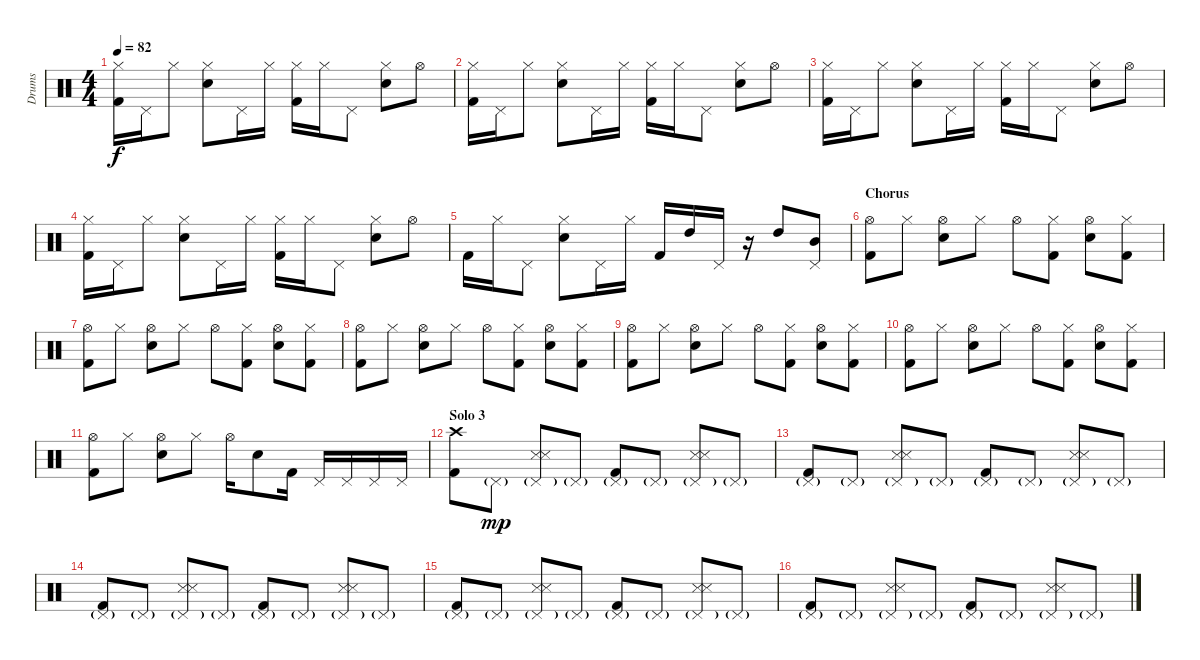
\track ("Drums" "Drums") {instrument percussion}
\staff {score}
\articulation defaults
\ts (4 4)
\tempo 82
\clef neutral
\ks c
("Hi-Hat (closed)" "Kick (hit) 2").16{dy f} "Pedal Hi-Hat (hit)".16 "Hi-Hat (closed)".8 ("Hi-Hat (closed)" "Snare (hit) 2").8 "Pedal Hi-Hat (hit)".16 "Hi-Hat (closed)".16 ("Hi-Hat (closed)" "Kick (hit) 2").16 "Hi-Hat (closed)".16 "Pedal Hi-Hat (hit)".8 ("Hi-Hat (closed)" "Snare (hit) 2").8 "Hi-Hat (open)".8 |
("Hi-Hat (closed)" "Kick (hit) 2").16 "Pedal Hi-Hat (hit)".16 "Hi-Hat (closed)".8 ("Hi-Hat (closed)" "Snare (hit) 2").8 "Pedal Hi-Hat (hit)".16 "Hi-Hat (closed)".16 ("Hi-Hat (closed)" "Kick (hit) 2").16 "Hi-Hat (closed)".16 "Pedal Hi-Hat (hit)".8 ("Hi-Hat (closed)" "Snare (hit) 2").8 "Hi-Hat (open)".8 |
("Hi-Hat (closed)" "Kick (hit) 2").16 "Pedal Hi-Hat (hit)".16 "Hi-Hat (closed)".8 ("Hi-Hat (closed)" "Snare (hit) 2").8 "Pedal Hi-Hat (hit)".16 "Hi-Hat (closed)".16 ("Hi-Hat (closed)" "Kick (hit) 2").16 "Hi-Hat (closed)".16 "Pedal Hi-Hat (hit)".8 ("Hi-Hat (closed)" "Snare (hit) 2").8 "Hi-Hat (open)".8 |
("Hi-Hat (closed)" "Kick (hit) 2").16 "Pedal Hi-Hat (hit)".16 "Hi-Hat (closed)".8 ("Hi-Hat (closed)" "Snare (hit) 2").8 "Pedal Hi-Hat (hit)".16 "Hi-Hat (closed)".16 ("Hi-Hat (closed)" "Kick (hit) 2").16 "Hi-Hat (closed)".16 "Pedal Hi-Hat (hit)".8 ("Hi-Hat (closed)" "Snare (hit) 2").8 "Hi-Hat (open)".8 |
"Kick (hit) 2".16 "Hi-Hat (closed)".16 "Pedal Hi-Hat (hit)".8 ("Snare (hit) 2" "Hi-Hat (closed)").8 "Pedal Hi-Hat (hit)".16 "Hi-Hat (closed)".16 "Kick (hit) 2".16 "High Tom (hit)".16 "Pedal Hi-Hat (hit)".16 r.16 "High Tom (hit)".8 ("Pedal Hi-Hat (hit)" "Mid Tom (hit)").8 |
\section ("" "Chorus")
("Hi-Hat (open)" "Kick (hit) 2").8 "Hi-Hat (closed)".8 ("Hi-Hat (open)" "Snare (hit) 2").8 "Hi-Hat (closed)".8 "Hi-Hat (open)".8 ("Hi-Hat (closed)" "Kick (hit) 2").8 ("Hi-Hat (open)" "Snare (hit) 2").8 ("Hi-Hat (closed)" "Kick (hit) 2").8 |
("Hi-Hat (open)" "Kick (hit) 2").8 "Hi-Hat (closed)".8 ("Hi-Hat (open)" "Snare (hit) 2").8 "Hi-Hat (closed)".8 "Hi-Hat (open)".8 ("Hi-Hat (closed)" "Kick (hit) 2").8 ("Hi-Hat (open)" "Snare (hit) 2").8 ("Hi-Hat (closed)" "Kick (hit) 2").8 |
("Hi-Hat (open)" "Kick (hit) 2").8 "Hi-Hat (closed)".8 ("Hi-Hat (open)" "Snare (hit) 2").8 "Hi-Hat (closed)".8 "Hi-Hat (open)".8 ("Hi-Hat (closed)" "Kick (hit) 2").8 ("Hi-Hat (open)" "Snare (hit) 2").8 ("Hi-Hat (closed)" "Kick (hit) 2").8 |
("Hi-Hat (open)" "Kick (hit) 2").8 "Hi-Hat (closed)".8 ("Hi-Hat (open)" "Snare (hit) 2").8 "Hi-Hat (closed)".8 "Hi-Hat (open)".8 ("Hi-Hat (closed)" "Kick (hit) 2").8 ("Hi-Hat (open)" "Snare (hit) 2").8 ("Hi-Hat (closed)" "Kick (hit) 2").8 |
("Hi-Hat (open)" "Kick (hit) 2").8 "Hi-Hat (closed)".8 ("Hi-Hat (open)" "Snare (hit) 2").8 "Hi-Hat (closed)".8 "Hi-Hat (open)".8 ("Hi-Hat (closed)" "Kick (hit) 2").8 ("Hi-Hat (open)" "Snare (hit) 2").8 ("Hi-Hat (closed)" "Kick (hit) 2").8 |
("Hi-Hat (open)" "Kick (hit) 2").8 "Hi-Hat (closed)".8 ("Hi-Hat (open)" "Snare (hit) 2").8 "Hi-Hat (closed)".8 "Hi-Hat (open)".16 "Snare (hit) 2".8 "Kick (hit) 2".16 "Pedal Hi-Hat (hit)".16 "Pedal Hi-Hat (hit)".16 "Pedal Hi-Hat (hit)".16 "Pedal Hi-Hat (hit)".16 |
\section ("" "Solo 3")
("Crash high (hit)" "Kick (hit) 2").8 "Pedal Hi-Hat (hit)"{g}.8{dy mp} ("Snare (side stick) 3" "Pedal Hi-Hat (hit)"{g} "Snare (side stick) 3").8 "Pedal Hi-Hat (hit)"{g}.8 ("Pedal Hi-Hat (hit)"{g} "Kick (hit) 2").8 "Pedal Hi-Hat (hit)"{g}.8 ("Snare (side stick) 3" "Pedal Hi-Hat (hit)"{g} "Snare (side stick) 3").8 "Pedal Hi-Hat (hit)"{g}.8 |
("Pedal Hi-Hat (hit)"{g} "Kick (hit) 2").8 "Pedal Hi-Hat (hit)"{g}.8 ("Snare (side stick) 3" "Pedal Hi-Hat (hit)"{g} "Snare (side stick) 3").8 "Pedal Hi-Hat (hit)"{g}.8 ("Pedal Hi-Hat (hit)"{g} "Kick (hit) 2").8 "Pedal Hi-Hat (hit)"{g}.8 ("Snare (side stick) 3" "Pedal Hi-Hat (hit)"{g} "Snare (side stick) 3").8 "Pedal Hi-Hat (hit)"{g}.8 |
("Pedal Hi-Hat (hit)"{g} "Kick (hit) 2").8 "Pedal Hi-Hat (hit)"{g}.8 ("Snare (side stick) 3" "Pedal Hi-Hat (hit)"{g} "Snare (side stick) 3").8 "Pedal Hi-Hat (hit)"{g}.8 ("Pedal Hi-Hat (hit)"{g} "Kick (hit) 2").8 "Pedal Hi-Hat (hit)"{g}.8 ("Snare (side stick) 3" "Pedal Hi-Hat (hit)"{g} "Snare (side stick) 3").8 "Pedal Hi-Hat (hit)"{g}.8 |
("Pedal Hi-Hat (hit)"{g} "Kick (hit) 2").8 "Pedal Hi-Hat (hit)"{g}.8 ("Snare (side stick) 3" "Pedal Hi-Hat (hit)"{g} "Snare (side stick) 3").8 "Pedal Hi-Hat (hit)"{g}.8 ("Pedal Hi-Hat (hit)"{g} "Kick (hit) 2").8 "Pedal Hi-Hat (hit)"{g}.8 ("Snare (side stick) 3" "Pedal Hi-Hat (hit)"{g} "Snare (side stick) 3").8 "Pedal Hi-Hat (hit)"{g}.8 |
("Pedal Hi-Hat (hit)"{g} "Kick (hit) 2").8 "Pedal Hi-Hat (hit)"{g}.8 ("Snare (side stick) 3" "Pedal Hi-Hat (hit)"{g} "Snare (side stick) 3").8 "Pedal Hi-Hat (hit)"{g}.8 ("Pedal Hi-Hat (hit)"{g} "Kick (hit) 2").8 "Pedal Hi-Hat (hit)"{g}.8 ("Snare (side stick) 3" "Pedal Hi-Hat (hit)"{g} "Snare (side stick) 3").8 "Pedal Hi-Hat (hit)"{g}.8
